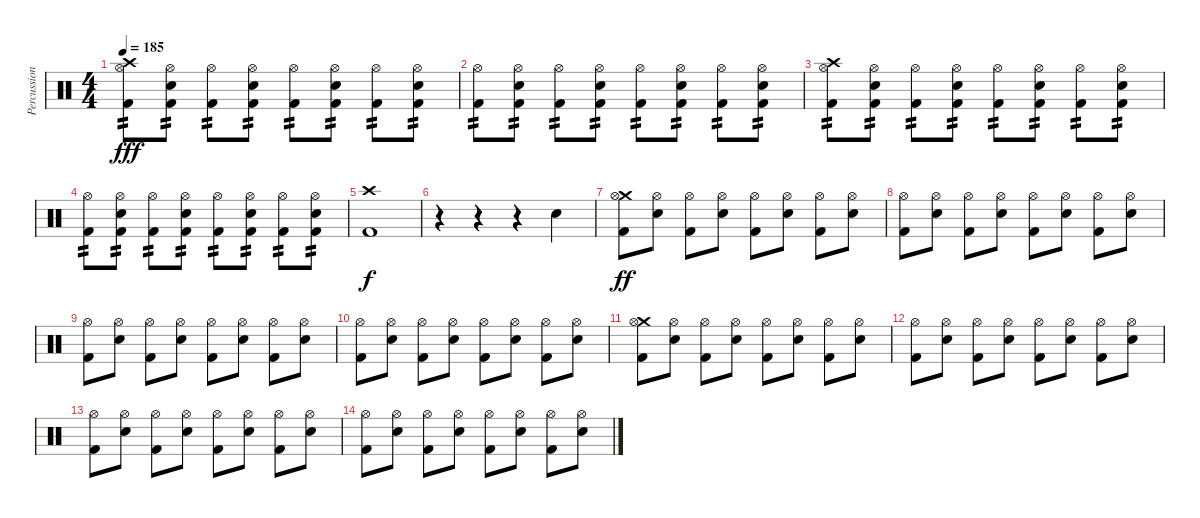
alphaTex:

\track ("Percussion" "Percussion") {instrument percussion}
\staff
\articulation defaults
\ts (4 4)
\tempo 185
\clef neutral
\ks c
("Crash high (hit)" "Hi-Hat (open)" "Kick (hit) 2").8{tp 2 dy fff} ("Hi-Hat (open)" "Electric Snare (hit)" "Kick (hit) 2").8{tp 2} ("Hi-Hat (open)" "Kick (hit) 2").8{tp 2} ("Hi-Hat (open)" "Electric Snare (hit)" "Kick (hit) 2").8{tp 2} ("Hi-Hat (open)" "Kick (hit) 2").8{tp 2} ("Hi-Hat (open)" "Electric Snare (hit)" "Kick (hit) 2").8{tp 2} ("Hi-Hat (open)" "Kick (hit) 2").8{tp 2} ("Hi-Hat (open)" "Electric Snare (hit)" "Kick (hit) 2").8{tp 2} |
("Hi-Hat (open)" "Kick (hit) 2").8{tp 2} ("Hi-Hat (open)" "Electric Snare (hit)" "Kick (hit) 2").8{tp 2} ("Hi-Hat (open)" "Kick (hit) 2").8{tp 2} ("Hi-Hat (open)" "Electric Snare (hit)" "Kick (hit) 2").8{tp 2} ("Hi-Hat (open)" "Kick (hit) 2").8{tp 2} ("Hi-Hat (open)" "Electric Snare (hit)" "Kick (hit) 2").8{tp 2} ("Hi-Hat (open)" "Kick (hit) 2").8{tp 2} ("Hi-Hat (open)" "Electric Snare (hit)" "Kick (hit) 2").8{tp 2} |
("Crash high (hit)" "Hi-Hat (open)" "Kick (hit) 2").8{tp 2} ("Hi-Hat (open)" "Electric Snare (hit)" "Kick (hit) 2").8{tp 2} ("Hi-Hat (open)" "Kick (hit) 2").8{tp 2} ("Hi-Hat (open)" "Electric Snare (hit)" "Kick (hit) 2").8{tp 2} ("Hi-Hat (open)" "Kick (hit) 2").8{tp 2} ("Hi-Hat (open)" "Electric Snare (hit)" "Kick (hit) 2").8{tp 2} ("Hi-Hat (open)" "Kick (hit) 2").8{tp 2} ("Hi-Hat (open)" "Electric Snare (hit)" "Kick (hit) 2").8{tp 2} |
("Hi-Hat (open)" "Kick (hit) 2").8{tp 2} ("Hi-Hat (open)" "Electric Snare (hit)" "Kick (hit) 2").8{tp 2} ("Hi-Hat (open)" "Kick (hit) 2").8{tp 2} ("Hi-Hat (open)" "Electric Snare (hit)" "Kick (hit) 2").8{tp 2} ("Hi-Hat (open)" "Kick (hit) 2").8{tp 2} ("Hi-Hat (open)" "Electric Snare (hit)" "Kick (hit) 2").8{tp 2} ("Hi-Hat (open)" "Kick (hit) 2").8{tp 2} ("Hi-Hat (open)" "Electric Snare (hit)" "Kick (hit) 2").8{tp 2} |
("Crash high (hit)" "Kick (hit) 2").1{dy f} |
r.4 r.4 r.4 "Electric Snare (hit)".4 |
("Crash medium (hit)" "Hi-Hat (open)" "Kick (hit) 2").8{dy ff} ("Hi-Hat (open)" "Electric Snare (hit)").8 ("Hi-Hat (open)" "Kick (hit) 2").8 ("Hi-Hat (open)" "Electric Snare (hit)").8 ("Hi-Hat (open)" "Kick (hit) 2").8 ("Hi-Hat (open)" "Electric Snare (hit)").8 ("Hi-Hat (open)" "Kick (hit) 2").8 ("Hi-Hat (open)" "Electric Snare (hit)").8 |
("Hi-Hat (open)" "Kick (hit) 2").8 ("Hi-Hat (open)" "Electric Snare (hit)").8 ("Hi-Hat (open)" "Kick (hit) 2").8 ("Hi-Hat (open)" "Electric Snare (hit)").8 ("Hi-Hat (open)" "Kick (hit) 2").8 ("Hi-Hat (open)" "Electric Snare (hit)").8 ("Hi-Hat (open)" "Kick (hit) 2").8 ("Hi-Hat (open)" "Electric Snare (hit)").8 |
("Hi-Hat (open)" "Kick (hit) 2").8 ("Hi-Hat (open)" "Electric Snare (hit)").8 ("Hi-Hat (open)" "Kick (hit) 2").8 ("Hi-Hat (open)" "Electric Snare (hit)").8 ("Hi-Hat (open)" "Kick (hit) 2").8 ("Hi-Hat (open)" "Electric Snare (hit)").8 ("Hi-Hat (open)" "Kick (hit) 2").8 ("Hi-Hat (open)" "Electric Snare (hit)").8 |
("Hi-Hat (open)" "Kick (hit) 2").8 ("Hi-Hat (open)" "Electric Snare (hit)").8 ("Hi-Hat (open)" "Kick (hit) 2").8 ("Hi-Hat (open)" "Electric Snare (hit)").8 ("Hi-Hat (open)" "Kick (hit) 2").8 ("Hi-Hat (open)" "Electric Snare (hit)").8 ("Hi-Hat (open)" "Kick (hit) 2").8 ("Hi-Hat (open)" "Electric Snare (hit)").8 |
("Crash medium (hit)" "Hi-Hat (open)" "Kick (hit) 2").8 ("Hi-Hat (open)" "Electric Snare (hit)").8 ("Hi-Hat (open)" "Kick (hit) 2").8 ("Hi-Hat (open)" "Electric Snare (hit)").8 ("Hi-Hat (open)" "Kick (hit) 2").8 ("Hi-Hat (open)" "Electric Snare (hit)").8 ("Hi-Hat (open)" "Kick (hit) 2").8 ("Hi-Hat (open)" "Electric Snare (hit)").8 |
("Hi-Hat (open)" "Kick (hit) 2").8 ("Hi-Hat (open)" "Electric Snare (hit)").8 ("Hi-Hat (open)" "Kick (hit) 2").8 ("Hi-Hat (open)" "Electric Snare (hit)").8 ("Hi-Hat (open)" "Kick (hit) 2").8 ("Hi-Hat (open)" "Electric Snare (hit)").8 ("Hi-Hat (open)" "Kick (hit) 2").8 ("Hi-Hat (open)" "Electric Snare (hit)").8 |
("Hi-Hat (open)" "Kick (hit) 2").8 ("Hi-Hat (open)" "Electric Snare (hit)").8 ("Hi-Hat (open)" "Kick (hit) 2").8 ("Hi-Hat (open)" "Electric Snare (hit)").8 ("Hi-Hat (open)" "Kick (hit) 2").8 ("Hi-Hat (open)" "Electric Snare (hit)").8 ("Hi-Hat (open)" "Kick (hit) 2").8 ("Hi-Hat (open)" "Electric Snare (hit)").8 |
("Hi-Hat (open)" "Kick (hit) 2").8 ("Hi-Hat (open)" "Electric Snare (hit)").8 ("Hi-Hat (open)" "Kick (hit) 2").8 ("Hi-Hat (open)" "Electric Snare (hit)").8 ("Hi-Hat (open)" "Kick (hit) 2").8 ("Hi-Hat (open)" "Electric Snare (hit)").8 ("Hi-Hat (open)" "Kick (hit) 2").8 ("Hi-Hat (open)" "Electric Snare (hit)").8
